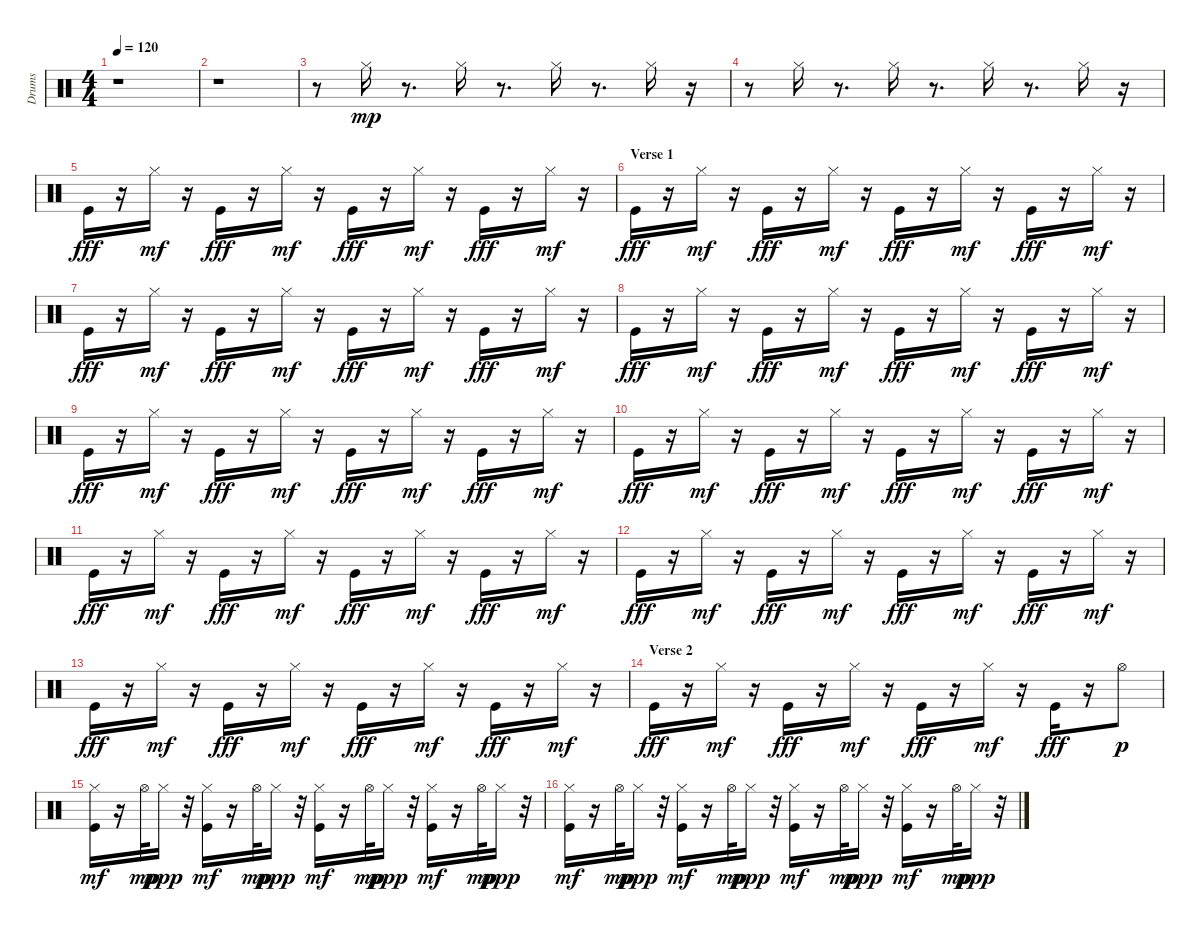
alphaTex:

\track ("Drums" "Drums") {instrument percussion}
\staff {score}
\articulation defaults
\ts (4 4)
\tempo 120
\clef neutral
\ks c
r.1{dy mp} |
r.1 |
r.8 "Hi-Hat (closed)".16 r.8{d} "Hi-Hat (closed)".16 r.8{d} "Hi-Hat (closed)".16 r.8{d} "Hi-Hat (closed)".16 r.16 |
r.8 "Hi-Hat (closed)".16 r.8{d} "Hi-Hat (closed)".16 r.8{d} "Hi-Hat (closed)".16 r.8{d} "Hi-Hat (closed)".16 r.16 |
"Kick (hit)".16{dy fff} r.16 "Hi-Hat (closed)".16{dy mf} r.16 "Kick (hit)".16{dy fff} r.16 "Hi-Hat (closed)".16{dy mf} r.16 "Kick (hit)".16{dy fff} r.16 "Hi-Hat (closed)".16{dy mf} r.16 "Kick (hit)".16{dy fff} r.16 "Hi-Hat (closed)".16{dy mf} r.16 |
\section ("" "Verse 1")
"Kick (hit)".16{dy fff} r.16 "Hi-Hat (closed)".16{dy mf} r.16 "Kick (hit)".16{dy fff} r.16 "Hi-Hat (closed)".16{dy mf} r.16 "Kick (hit)".16{dy fff} r.16 "Hi-Hat (closed)".16{dy mf} r.16 "Kick (hit)".16{dy fff} r.16 "Hi-Hat (closed)".16{dy mf} r.16 |
"Kick (hit)".16{dy fff} r.16 "Hi-Hat (closed)".16{dy mf} r.16 "Kick (hit)".16{dy fff} r.16 "Hi-Hat (closed)".16{dy mf} r.16 "Kick (hit)".16{dy fff} r.16 "Hi-Hat (closed)".16{dy mf} r.16 "Kick (hit)".16{dy fff} r.16 "Hi-Hat (closed)".16{dy mf} r.16 |
"Kick (hit)".16{dy fff} r.16 "Hi-Hat (closed)".16{dy mf} r.16 "Kick (hit)".16{dy fff} r.16 "Hi-Hat (closed)".16{dy mf} r.16 "Kick (hit)".16{dy fff} r.16 "Hi-Hat (closed)".16{dy mf} r.16 "Kick (hit)".16{dy fff} r.16 "Hi-Hat (closed)".16{dy mf} r.16 |
"Kick (hit)".16{dy fff} r.16 "Hi-Hat (closed)".16{dy mf} r.16 "Kick (hit)".16{dy fff} r.16 "Hi-Hat (closed)".16{dy mf} r.16 "Kick (hit)".16{dy fff} r.16 "Hi-Hat (closed)".16{dy mf} r.16 "Kick (hit)".16{dy fff} r.16 "Hi-Hat (closed)".16{dy mf} r.16 |
"Kick (hit)".16{dy fff} r.16 "Hi-Hat (closed)".16{dy mf} r.16 "Kick (hit)".16{dy fff} r.16 "Hi-Hat (closed)".16{dy mf} r.16 "Kick (hit)".16{dy fff} r.16 "Hi-Hat (closed)".16{dy mf} r.16 "Kick (hit)".16{dy fff} r.16 "Hi-Hat (closed)".16{dy mf} r.16 |
"Kick (hit)".16{dy fff} r.16 "Hi-Hat (closed)".16{dy mf} r.16 "Kick (hit)".16{dy fff} r.16 "Hi-Hat (closed)".16{dy mf} r.16 "Kick (hit)".16{dy fff} r.16 "Hi-Hat (closed)".16{dy mf} r.16 "Kick (hit)".16{dy fff} r.16 "Hi-Hat (closed)".16{dy mf} r.16 |
"Kick (hit)".16{dy fff} r.16 "Hi-Hat (closed)".16{dy mf} r.16 "Kick (hit)".16{dy fff} r.16 "Hi-Hat (closed)".16{dy mf} r.16 "Kick (hit)".16{dy fff} r.16 "Hi-Hat (closed)".16{dy mf} r.16 "Kick (hit)".16{dy fff} r.16 "Hi-Hat (closed)".16{dy mf} r.16 |
"Kick (hit)".16{dy fff} r.16 "Hi-Hat (closed)".16{dy mf} r.16 "Kick (hit)".16{dy fff} r.16 "Hi-Hat (closed)".16{dy mf} r.16 "Kick (hit)".16{dy fff} r.16 "Hi-Hat (closed)".16{dy mf} r.16 "Kick (hit)".16{dy fff} r.16 "Hi-Hat (closed)".16{dy mf} r.16 |
\section ("" "Verse 2")
"Kick (hit)".16{dy fff} r.16 "Hi-Hat (closed)".16{dy mf} r.16 "Kick (hit)".16{dy fff} r.16 "Hi-Hat (closed)".16{dy mf} r.16 "Kick (hit)".16{dy fff} r.16 "Hi-Hat (closed)".16{dy mf} r.16 "Kick (hit)".16{dy fff} r.16 "Hi-Hat (open)".8{dy p} |
("Kick (hit)" "Hi-Hat (closed)").16{dy mf} r.16 "Hi-Hat (open)".32{dy mp} "Hi-Hat (closed)".16{dy ppp} r.32 ("Kick (hit)" "Hi-Hat (closed)").16{dy mf} r.16 "Hi-Hat (open)".32{dy mp} "Hi-Hat (closed)".16{dy ppp} r.32 ("Kick (hit)" "Hi-Hat (closed)").16{dy mf} r.16 "Hi-Hat (open)".32{dy mp} "Hi-Hat (closed)".16{dy ppp} r.32 ("Kick (hit)" "Hi-Hat (closed)").16{dy mf} r.16 "Hi-Hat (open)".32{dy mp} "Hi-Hat (closed)".16{dy ppp} r.32 |
("Kick (hit)" "Hi-Hat (closed)").16{dy mf} r.16 "Hi-Hat (open)".32{dy mp} "Hi-Hat (closed)".16{dy ppp} r.32 ("Kick (hit)" "Hi-Hat (closed)").16{dy mf} r.16 "Hi-Hat (open)".32{dy mp} "Hi-Hat (closed)".16{dy ppp} r.32 ("Kick (hit)" "Hi-Hat (closed)").16{dy mf} r.16 "Hi-Hat (open)".32{dy mp} "Hi-Hat (closed)".16{dy ppp} r.32 ("Kick (hit)" "Hi-Hat (closed)").16{dy mf} r.16 "Hi-Hat (open)".32{dy mp} "Hi-Hat (closed)".16{dy ppp} r.32
